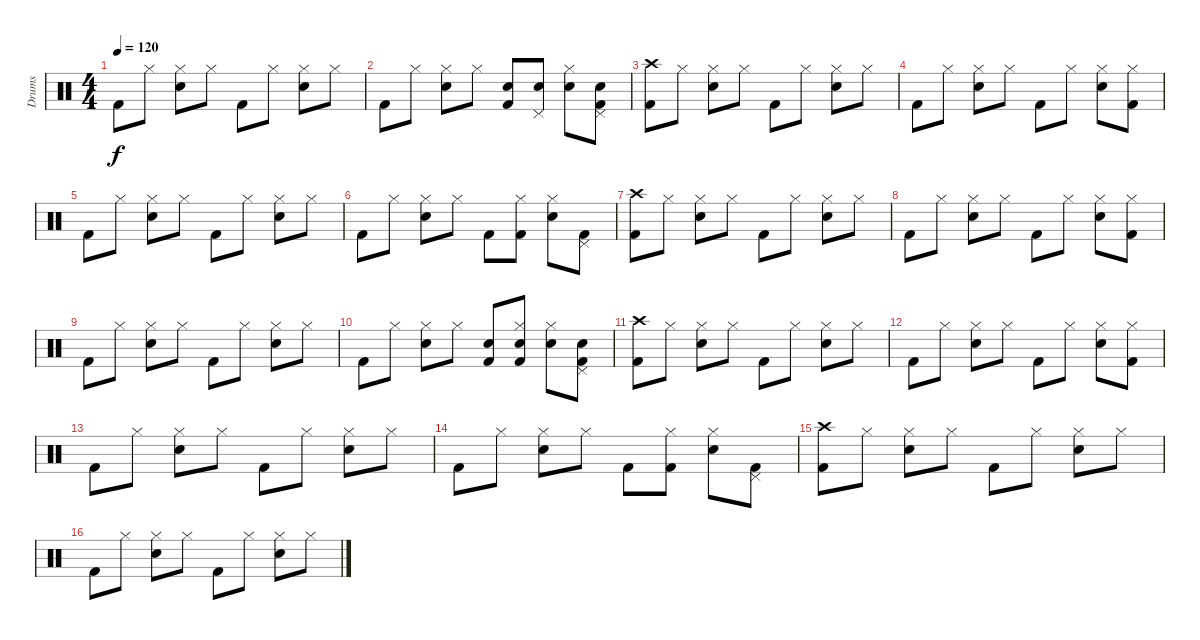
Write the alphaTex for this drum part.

\track ("Drums" "Drums") {instrument percussion}
\staff {score}
\articulation defaults
\ts (4 4)
\tempo 120
\clef neutral
\ks c "Kick (hit) 2".8{dy f} "Hi-Hat (closed)".8
("Hi-Hat (closed)" "Snare (hit) 2").8 "Hi-Hat (closed)".8 "Kick (hit) 2".8 "Hi-Hat (closed)".8 ("Hi-Hat (closed)" "Snare (hit) 2").8 "Hi-Hat (closed)".8 |
"Kick (hit) 2".8 "Hi-Hat (closed)".8 ("Hi-Hat (closed)" "Snare (hit) 2").8 "Hi-Hat (closed)".8 ("Snare (hit) 2" "Kick (hit) 2").8 ("Pedal Hi-Hat (hit)" "Snare (hit) 2").8 ("Hi-Hat (closed)" "Snare (hit) 2").8 ("Pedal Hi-Hat (hit)" "Snare (hit) 2" "Kick (hit) 2").8 |
("Crash high (hit)" "Kick (hit) 2").8 "Hi-Hat (closed)".8 ("Hi-Hat (closed)" "Snare (hit) 2").8 "Hi-Hat (closed)".8 "Kick (hit) 2".8 "Hi-Hat (closed)".8 ("Hi-Hat (closed)" "Snare (hit) 2").8 "Hi-Hat (closed)".8 |
"Kick (hit) 2".8 "Hi-Hat (closed)".8 ("Hi-Hat (closed)" "Snare (hit) 2").8 "Hi-Hat (closed)".8 "Kick (hit) 2".8 "Hi-Hat (closed)".8 ("Hi-Hat (closed)" "Snare (hit) 2").8 ("Hi-Hat (closed)" "Kick (hit) 2").8 |
"Kick (hit) 2".8 "Hi-Hat (closed)".8 ("Hi-Hat (closed)" "Snare (hit) 2").8 "Hi-Hat (closed)".8 "Kick (hit) 2".8 "Hi-Hat (closed)".8 ("Hi-Hat (closed)" "Snare (hit) 2").8 "Hi-Hat (closed)".8 |
"Kick (hit) 2".8 "Hi-Hat (closed)".8 ("Hi-Hat (closed)" "Snare (hit) 2").8 "Hi-Hat (closed)".8 "Kick (hit) 2".8 ("Hi-Hat (closed)" "Kick (hit) 2").8 ("Hi-Hat (closed)" "Snare (hit) 2").8 ("Pedal Hi-Hat (hit)" "Kick (hit) 2").8 |
("Crash high (hit)" "Kick (hit) 2").8 "Hi-Hat (closed)".8 ("Hi-Hat (closed)" "Snare (hit) 2").8 "Hi-Hat (closed)".8 "Kick (hit) 2".8 "Hi-Hat (closed)".8 ("Hi-Hat (closed)" "Snare (hit) 2").8 "Hi-Hat (closed)".8 |
"Kick (hit) 2".8 "Hi-Hat (closed)".8 ("Hi-Hat (closed)" "Snare (hit) 2").8 "Hi-Hat (closed)".8 "Kick (hit) 2".8 "Hi-Hat (closed)".8 ("Hi-Hat (closed)" "Snare (hit) 2").8 ("Hi-Hat (closed)" "Kick (hit) 2").8 |
"Kick (hit) 2".8 "Hi-Hat (closed)".8 ("Hi-Hat (closed)" "Snare (hit) 2").8 "Hi-Hat (closed)".8 "Kick (hit) 2".8 "Hi-Hat (closed)".8 ("Hi-Hat (closed)" "Snare (hit) 2").8 "Hi-Hat (closed)".8 |
"Kick (hit) 2".8 "Hi-Hat (closed)".8 ("Hi-Hat (closed)" "Snare (hit) 2").8 "Hi-Hat (closed)".8 ("Snare (hit) 2" "Kick (hit) 2").8 ("Hi-Hat (closed)" "Snare (hit) 2" "Kick (hit) 2").8 ("Hi-Hat (closed)" "Snare (hit) 2").8 ("Pedal Hi-Hat (hit)" "Snare (hit) 2" "Kick (hit) 2").8 |
("Crash high (hit)" "Kick (hit) 2").8 "Hi-Hat (closed)".8 ("Hi-Hat (closed)" "Snare (hit) 2").8 "Hi-Hat (closed)".8 "Kick (hit) 2".8 "Hi-Hat (closed)".8 ("Hi-Hat (closed)" "Snare (hit) 2").8 "Hi-Hat (closed)".8 |
"Kick (hit) 2".8 "Hi-Hat (closed)".8 ("Hi-Hat (closed)" "Snare (hit) 2").8 "Hi-Hat (closed)".8 "Kick (hit) 2".8 "Hi-Hat (closed)".8 ("Hi-Hat (closed)" "Snare (hit) 2").8 ("Hi-Hat (closed)" "Kick (hit) 2").8 |
"Kick (hit) 2".8 "Hi-Hat (closed)".8 ("Hi-Hat (closed)" "Snare (hit) 2").8 "Hi-Hat (closed)".8 "Kick (hit) 2".8 "Hi-Hat (closed)".8 ("Hi-Hat (closed)" "Snare (hit) 2").8 "Hi-Hat (closed)".8 |
"Kick (hit) 2".8 "Hi-Hat (closed)".8 ("Hi-Hat (closed)" "Snare (hit) 2").8 "Hi-Hat (closed)".8 "Kick (hit) 2".8 ("Hi-Hat (closed)" "Kick (hit) 2").8 ("Hi-Hat (closed)" "Snare (hit) 2").8 ("Pedal Hi-Hat (hit)" "Kick (hit) 2").8 |
("Crash high (hit)" "Kick (hit) 2").8 "Hi-Hat (closed)".8 ("Hi-Hat (closed)" "Snare (hit) 2").8 "Hi-Hat (closed)".8 "Kick (hit) 2".8 "Hi-Hat (closed)".8 ("Hi-Hat (closed)" "Snare (hit) 2").8 "Hi-Hat (closed)".8 |
"Kick (hit) 2".8 "Hi-Hat (closed)".8 ("Hi-Hat (closed)" "Snare (hit) 2").8 "Hi-Hat (closed)".8 "Kick (hit) 2".8 "Hi-Hat (closed)".8 ("Hi-Hat (closed)" "Snare (hit) 2").8 "Hi-Hat (closed)".8
